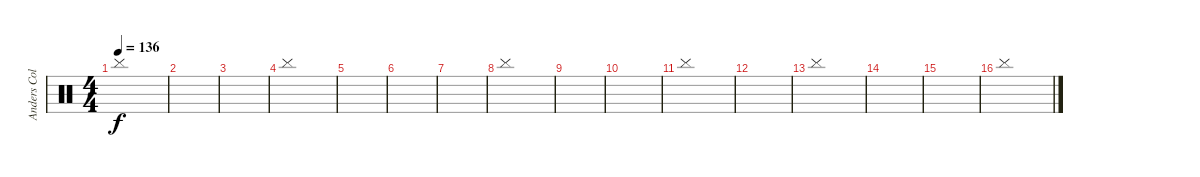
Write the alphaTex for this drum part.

\track ("Anders Colsefni" "Anders Col") {instrument percussion}
\staff {score}
\articulation defaults
\ts (4 4)
\tempo 136
\clef neutral
\ks c "Cymbal (hit)".1{dy f}
|
|
|
"Cymbal (hit)".1 |
|
|
|
"Cymbal (hit)".1 |
|
|
"Cymbal (hit)".1 |
|
"Cymbal (hit)".1 |
|
|
"Cymbal (hit)".1
